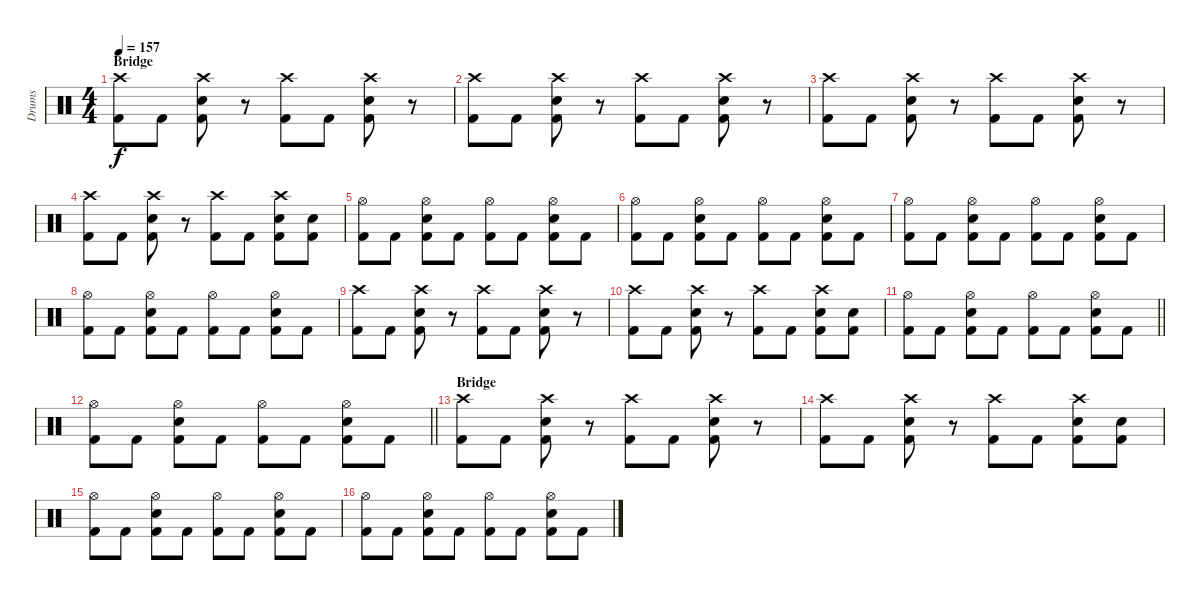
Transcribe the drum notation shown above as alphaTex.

\track ("Drums" "Drums") {instrument percussion}
\staff {score}
\articulation defaults
\ts (4 4)
\section ("" "Bridge")
\tempo 157
\clef neutral
\ks c
("Crash high (hit)" "Kick (hit) 2").8{dy f} "Kick (hit) 2".8 ("Crash high (hit)" "Electric Snare (hit)" "Kick (hit) 2").8 r.8 ("Crash high (hit)" "Kick (hit) 2").8 "Kick (hit) 2".8 ("Crash high (hit)" "Electric Snare (hit)" "Kick (hit) 2").8 r.8 |
("Crash high (hit)" "Kick (hit) 2").8 "Kick (hit) 2".8 ("Crash high (hit)" "Electric Snare (hit)" "Kick (hit) 2").8 r.8 ("Crash high (hit)" "Kick (hit) 2").8 "Kick (hit) 2".8 ("Crash high (hit)" "Electric Snare (hit)" "Kick (hit) 2").8 r.8 |
("Crash high (hit)" "Kick (hit) 2").8 "Kick (hit) 2".8 ("Crash high (hit)" "Electric Snare (hit)" "Kick (hit) 2").8 r.8 ("Crash high (hit)" "Kick (hit) 2").8 "Kick (hit) 2".8 ("Crash high (hit)" "Electric Snare (hit)" "Kick (hit) 2").8 r.8 |
("Crash high (hit)" "Kick (hit) 2").8 "Kick (hit) 2".8 ("Crash high (hit)" "Electric Snare (hit)" "Kick (hit) 2").8 r.8 ("Crash high (hit)" "Kick (hit) 2").8 "Kick (hit) 2".8 ("Crash high (hit)" "Electric Snare (hit)" "Kick (hit) 2").8 ("Electric Snare (hit)" "Kick (hit) 2").8 |
("Hi-Hat (open)" "Kick (hit) 2").8 "Kick (hit) 2".8 ("Hi-Hat (open)" "Electric Snare (hit)" "Kick (hit) 2").8 "Kick (hit) 2".8 ("Hi-Hat (open)" "Kick (hit) 2").8 "Kick (hit) 2".8 ("Hi-Hat (open)" "Kick (hit) 2" "Electric Snare (hit)").8 "Kick (hit) 2".8 |
("Hi-Hat (open)" "Kick (hit) 2").8 "Kick (hit) 2".8 ("Hi-Hat (open)" "Electric Snare (hit)" "Kick (hit) 2").8 "Kick (hit) 2".8 ("Hi-Hat (open)" "Kick (hit) 2").8 "Kick (hit) 2".8 ("Hi-Hat (open)" "Kick (hit) 2" "Electric Snare (hit)").8 "Kick (hit) 2".8 |
("Hi-Hat (open)" "Kick (hit) 2").8 "Kick (hit) 2".8 ("Hi-Hat (open)" "Electric Snare (hit)" "Kick (hit) 2").8 "Kick (hit) 2".8 ("Hi-Hat (open)" "Kick (hit) 2").8 "Kick (hit) 2".8 ("Hi-Hat (open)" "Kick (hit) 2" "Electric Snare (hit)").8 "Kick (hit) 2".8 |
("Hi-Hat (open)" "Kick (hit) 2").8 "Kick (hit) 2".8 ("Hi-Hat (open)" "Electric Snare (hit)" "Kick (hit) 2").8 "Kick (hit) 2".8 ("Hi-Hat (open)" "Kick (hit) 2").8 "Kick (hit) 2".8 ("Hi-Hat (open)" "Kick (hit) 2" "Electric Snare (hit)").8 "Kick (hit) 2".8 |
("Crash high (hit)" "Kick (hit) 2").8 "Kick (hit) 2".8 ("Crash high (hit)" "Electric Snare (hit)" "Kick (hit) 2").8 r.8 ("Crash high (hit)" "Kick (hit) 2").8 "Kick (hit) 2".8 ("Crash high (hit)" "Electric Snare (hit)" "Kick (hit) 2").8 r.8 |
("Crash high (hit)" "Kick (hit) 2").8 "Kick (hit) 2".8 ("Crash high (hit)" "Electric Snare (hit)" "Kick (hit) 2").8 r.8 ("Crash high (hit)" "Kick (hit) 2").8 "Kick (hit) 2".8 ("Crash high (hit)" "Electric Snare (hit)" "Kick (hit) 2").8 ("Electric Snare (hit)" "Kick (hit) 2").8 |
\barLineRight lightlight
("Hi-Hat (open)" "Kick (hit) 2").8 "Kick (hit) 2".8 ("Hi-Hat (open)" "Electric Snare (hit)" "Kick (hit) 2").8 "Kick (hit) 2".8 ("Hi-Hat (open)" "Kick (hit) 2").8 "Kick (hit) 2".8 ("Hi-Hat (open)" "Kick (hit) 2" "Electric Snare (hit)").8 "Kick (hit) 2".8 |
\section ("" "")
\barLineRight lightlight
("Hi-Hat (open)" "Kick (hit) 2").8 "Kick (hit) 2".8 ("Hi-Hat (open)" "Electric Snare (hit)" "Kick (hit) 2").8 "Kick (hit) 2".8 ("Hi-Hat (open)" "Kick (hit) 2").8 "Kick (hit) 2".8 ("Hi-Hat (open)" "Kick (hit) 2" "Electric Snare (hit)").8 "Kick (hit) 2".8 |
\section ("" "Bridge")
("Crash high (hit)" "Kick (hit) 2").8 "Kick (hit) 2".8 ("Crash high (hit)" "Electric Snare (hit)" "Kick (hit) 2").8 r.8 ("Crash high (hit)" "Kick (hit) 2").8 "Kick (hit) 2".8 ("Crash high (hit)" "Electric Snare (hit)" "Kick (hit) 2").8 r.8 |
("Crash high (hit)" "Kick (hit) 2").8 "Kick (hit) 2".8 ("Crash high (hit)" "Electric Snare (hit)" "Kick (hit) 2").8 r.8 ("Crash high (hit)" "Kick (hit) 2").8 "Kick (hit) 2".8 ("Crash high (hit)" "Electric Snare (hit)" "Kick (hit) 2").8 ("Electric Snare (hit)" "Kick (hit) 2").8 |
("Hi-Hat (open)" "Kick (hit) 2").8 "Kick (hit) 2".8 ("Hi-Hat (open)" "Electric Snare (hit)" "Kick (hit) 2").8 "Kick (hit) 2".8 ("Hi-Hat (open)" "Kick (hit) 2").8 "Kick (hit) 2".8 ("Hi-Hat (open)" "Kick (hit) 2" "Electric Snare (hit)").8 "Kick (hit) 2".8 |
("Hi-Hat (open)" "Kick (hit) 2").8 "Kick (hit) 2".8 ("Hi-Hat (open)" "Electric Snare (hit)" "Kick (hit) 2").8 "Kick (hit) 2".8 ("Hi-Hat (open)" "Kick (hit) 2").8 "Kick (hit) 2".8 ("Hi-Hat (open)" "Kick (hit) 2" "Electric Snare (hit)").8 "Kick (hit) 2".8
